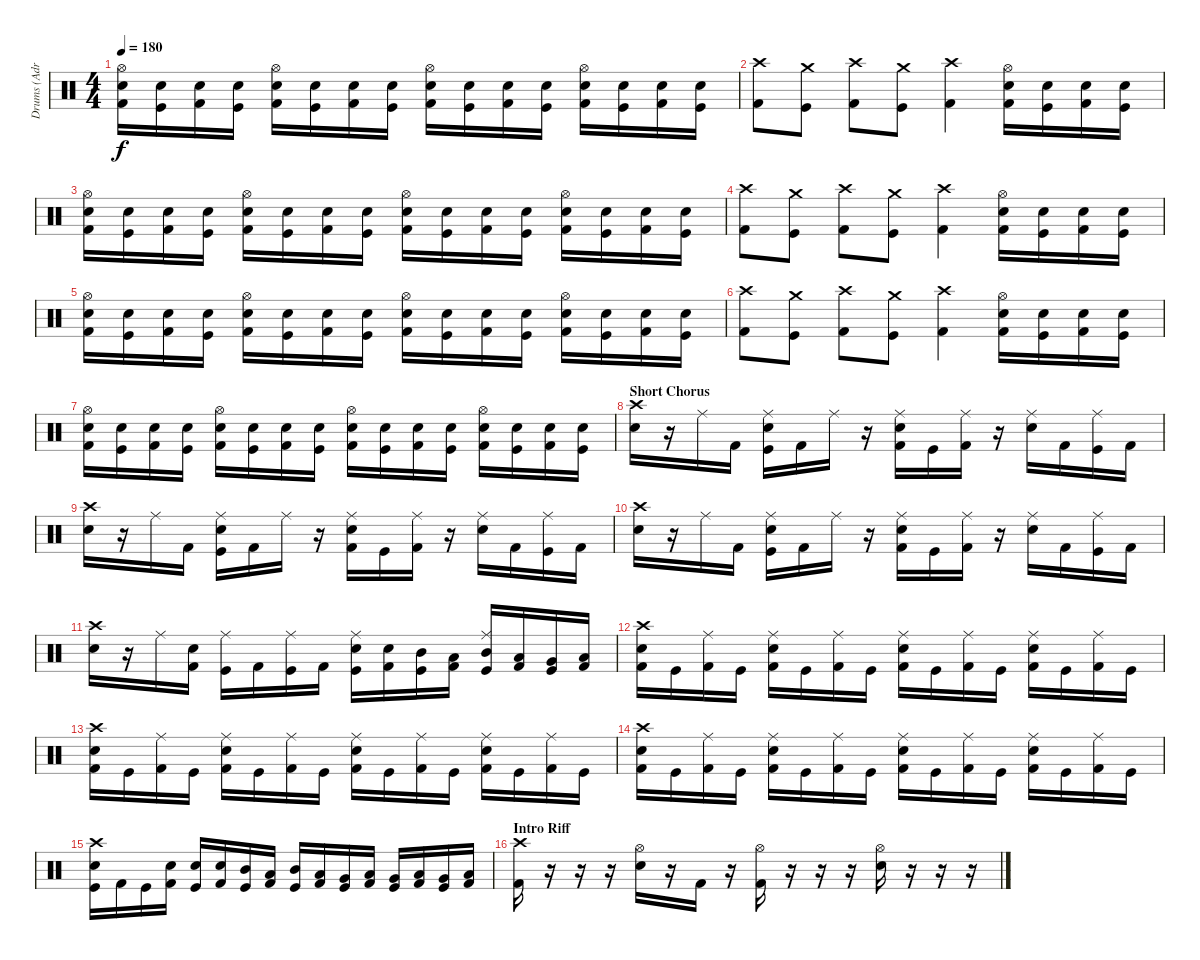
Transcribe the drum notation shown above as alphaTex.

\track ("Drums (Adrian)" "Drums (Adr") {instrument percussion}
\staff {score}
\articulation defaults
\ts (4 4)
\tempo 180
\clef neutral
\ks c
("Hi-Hat (open)" "Electric Snare (hit)" "Kick (hit) 2").16{dy f} ("Electric Snare (hit)" "Kick (hit)").16 ("Electric Snare (hit)" "Kick (hit) 2").16 ("Electric Snare (hit)" "Kick (hit)").16 ("Hi-Hat (open)" "Electric Snare (hit)" "Kick (hit) 2").16 ("Electric Snare (hit)" "Kick (hit)").16 ("Electric Snare (hit)" "Kick (hit) 2").16 ("Electric Snare (hit)" "Kick (hit)").16 ("Hi-Hat (open)" "Electric Snare (hit)" "Kick (hit) 2").16 ("Electric Snare (hit)" "Kick (hit)").16 ("Electric Snare (hit)" "Kick (hit) 2").16 ("Electric Snare (hit)" "Kick (hit)").16 ("Hi-Hat (open)" "Electric Snare (hit)" "Kick (hit) 2").16 ("Electric Snare (hit)" "Kick (hit)").16 ("Electric Snare (hit)" "Kick (hit) 2").16 ("Electric Snare (hit)" "Kick (hit)").16 |
("Crash high (hit)" "Kick (hit) 2").8 ("Crash medium (hit)" "Kick (hit)").8 ("Crash high (hit)" "Kick (hit) 2").8 ("Crash medium (hit)" "Kick (hit)").8 ("Crash high (hit)" "Kick (hit) 2").4 ("Hi-Hat (open)" "Electric Snare (hit)" "Kick (hit) 2").16 ("Electric Snare (hit)" "Kick (hit)").16 ("Electric Snare (hit)" "Kick (hit) 2").16 ("Electric Snare (hit)" "Kick (hit)").16 |
("Hi-Hat (open)" "Electric Snare (hit)" "Kick (hit) 2").16 ("Electric Snare (hit)" "Kick (hit)").16 ("Electric Snare (hit)" "Kick (hit) 2").16 ("Electric Snare (hit)" "Kick (hit)").16 ("Hi-Hat (open)" "Electric Snare (hit)" "Kick (hit) 2").16 ("Electric Snare (hit)" "Kick (hit)").16 ("Electric Snare (hit)" "Kick (hit) 2").16 ("Electric Snare (hit)" "Kick (hit)").16 ("Hi-Hat (open)" "Electric Snare (hit)" "Kick (hit) 2").16 ("Electric Snare (hit)" "Kick (hit)").16 ("Electric Snare (hit)" "Kick (hit) 2").16 ("Electric Snare (hit)" "Kick (hit)").16 ("Hi-Hat (open)" "Electric Snare (hit)" "Kick (hit) 2").16 ("Electric Snare (hit)" "Kick (hit)").16 ("Electric Snare (hit)" "Kick (hit) 2").16 ("Electric Snare (hit)" "Kick (hit)").16 |
("Crash high (hit)" "Kick (hit) 2").8 ("Crash medium (hit)" "Kick (hit)").8 ("Crash high (hit)" "Kick (hit) 2").8 ("Crash medium (hit)" "Kick (hit)").8 ("Crash high (hit)" "Kick (hit) 2").4 ("Hi-Hat (open)" "Electric Snare (hit)" "Kick (hit) 2").16 ("Electric Snare (hit)" "Kick (hit)").16 ("Electric Snare (hit)" "Kick (hit) 2").16 ("Electric Snare (hit)" "Kick (hit)").16 |
("Hi-Hat (open)" "Electric Snare (hit)" "Kick (hit) 2").16 ("Electric Snare (hit)" "Kick (hit)").16 ("Electric Snare (hit)" "Kick (hit) 2").16 ("Electric Snare (hit)" "Kick (hit)").16 ("Hi-Hat (open)" "Electric Snare (hit)" "Kick (hit) 2").16 ("Electric Snare (hit)" "Kick (hit)").16 ("Electric Snare (hit)" "Kick (hit) 2").16 ("Electric Snare (hit)" "Kick (hit)").16 ("Hi-Hat (open)" "Electric Snare (hit)" "Kick (hit) 2").16 ("Electric Snare (hit)" "Kick (hit)").16 ("Electric Snare (hit)" "Kick (hit) 2").16 ("Electric Snare (hit)" "Kick (hit)").16 ("Hi-Hat (open)" "Electric Snare (hit)" "Kick (hit) 2").16 ("Electric Snare (hit)" "Kick (hit)").16 ("Electric Snare (hit)" "Kick (hit) 2").16 ("Electric Snare (hit)" "Kick (hit)").16 |
("Crash high (hit)" "Kick (hit) 2").8 ("Crash medium (hit)" "Kick (hit)").8 ("Crash high (hit)" "Kick (hit) 2").8 ("Crash medium (hit)" "Kick (hit)").8 ("Crash high (hit)" "Kick (hit) 2").4 ("Hi-Hat (open)" "Electric Snare (hit)" "Kick (hit) 2").16 ("Electric Snare (hit)" "Kick (hit)").16 ("Electric Snare (hit)" "Kick (hit) 2").16 ("Electric Snare (hit)" "Kick (hit)").16 |
("Hi-Hat (open)" "Electric Snare (hit)" "Kick (hit) 2").16 ("Electric Snare (hit)" "Kick (hit)").16 ("Electric Snare (hit)" "Kick (hit) 2").16 ("Electric Snare (hit)" "Kick (hit)").16 ("Hi-Hat (open)" "Electric Snare (hit)" "Kick (hit) 2").16 ("Electric Snare (hit)" "Kick (hit)").16 ("Electric Snare (hit)" "Kick (hit) 2").16 ("Electric Snare (hit)" "Kick (hit)").16 ("Hi-Hat (open)" "Electric Snare (hit)" "Kick (hit) 2").16 ("Electric Snare (hit)" "Kick (hit)").16 ("Electric Snare (hit)" "Kick (hit) 2").16 ("Electric Snare (hit)" "Kick (hit)").16 ("Hi-Hat (open)" "Electric Snare (hit)" "Kick (hit) 2").16 ("Electric Snare (hit)" "Kick (hit)").16 ("Electric Snare (hit)" "Kick (hit) 2").16 ("Electric Snare (hit)" "Kick (hit)").16 |
\section ("" "Short Chorus")
("Crash high (hit)" "Electric Snare (hit)").16 r.16 "Ride (middle)".16 "Kick (hit) 2".16 ("Ride (middle)" "Electric Snare (hit)" "Kick (hit)").16 "Kick (hit) 2".16 "Ride (middle)".16 r.16 ("Ride (middle)" "Electric Snare (hit)" "Kick (hit) 2").16 "Kick (hit)".16 ("Ride (middle)" "Kick (hit) 2").16 r.16 ("Ride (middle)" "Electric Snare (hit)").16 "Kick (hit) 2".16 ("Ride (middle)" "Kick (hit)").16 "Kick (hit) 2".16 |
("Crash high (hit)" "Electric Snare (hit)").16 r.16 "Ride (middle)".16 "Kick (hit) 2".16 ("Ride (middle)" "Electric Snare (hit)" "Kick (hit)").16 "Kick (hit) 2".16 "Ride (middle)".16 r.16 ("Ride (middle)" "Electric Snare (hit)" "Kick (hit) 2").16 "Kick (hit)".16 ("Ride (middle)" "Kick (hit) 2").16 r.16 ("Ride (middle)" "Electric Snare (hit)").16 "Kick (hit) 2".16 ("Ride (middle)" "Kick (hit)").16 "Kick (hit) 2".16 |
("Crash high (hit)" "Electric Snare (hit)").16 r.16 "Ride (middle)".16 "Kick (hit) 2".16 ("Ride (middle)" "Electric Snare (hit)" "Kick (hit)").16 "Kick (hit) 2".16 "Ride (middle)".16 r.16 ("Ride (middle)" "Electric Snare (hit)" "Kick (hit) 2").16 "Kick (hit)".16 ("Ride (middle)" "Kick (hit) 2").16 r.16 ("Ride (middle)" "Electric Snare (hit)").16 "Kick (hit) 2".16 ("Ride (middle)" "Kick (hit)").16 "Kick (hit) 2".16 |
("Crash high (hit)" "Electric Snare (hit)").16 r.16 "Ride (middle)".16 ("Electric Snare (hit)" "Kick (hit) 2").16 ("Ride (middle)" "Kick (hit)").16 "Kick (hit) 2".16 ("Ride (middle)" "Kick (hit)").16 "Kick (hit) 2".16 ("Ride (middle)" "Electric Snare (hit)" "Kick (hit)").16 ("Electric Snare (hit)" "Kick (hit) 2").16 ("Mid Tom (hit)" "Kick (hit)").16 ("Low Tom (hit)" "Kick (hit) 2").16 ("Ride (middle)" "Mid Tom (hit)" "Kick (hit)").16 ("Low Tom (hit)" "Kick (hit) 2").16 ("Very Low Tom (hit)" "Kick (hit)").16 ("Low Tom (hit)" "Kick (hit) 2").16 |
("Crash high (hit)" "Electric Snare (hit)" "Kick (hit) 2").16 "Kick (hit)".16 ("Ride (middle)" "Kick (hit) 2").16 "Kick (hit)".16 ("Ride (middle)" "Electric Snare (hit)" "Kick (hit) 2").16 "Kick (hit)".16 ("Ride (middle)" "Kick (hit) 2").16 "Kick (hit)".16 ("Ride (middle)" "Electric Snare (hit)" "Kick (hit) 2").16 "Kick (hit)".16 ("Ride (middle)" "Kick (hit) 2").16 "Kick (hit)".16 ("Ride (middle)" "Electric Snare (hit)" "Kick (hit) 2").16 "Kick (hit)".16 ("Ride (middle)" "Kick (hit) 2").16 "Kick (hit)".16 |
("Crash high (hit)" "Electric Snare (hit)" "Kick (hit) 2").16 "Kick (hit)".16 ("Ride (middle)" "Kick (hit) 2").16 "Kick (hit)".16 ("Ride (middle)" "Electric Snare (hit)" "Kick (hit) 2").16 "Kick (hit)".16 ("Ride (middle)" "Kick (hit) 2").16 "Kick (hit)".16 ("Ride (middle)" "Electric Snare (hit)" "Kick (hit) 2").16 "Kick (hit)".16 ("Ride (middle)" "Kick (hit) 2").16 "Kick (hit)".16 ("Ride (middle)" "Electric Snare (hit)" "Kick (hit) 2").16 "Kick (hit)".16 ("Ride (middle)" "Kick (hit) 2").16 "Kick (hit)".16 |
("Crash high (hit)" "Electric Snare (hit)" "Kick (hit) 2").16 "Kick (hit)".16 ("Ride (middle)" "Kick (hit) 2").16 "Kick (hit)".16 ("Ride (middle)" "Electric Snare (hit)" "Kick (hit) 2").16 "Kick (hit)".16 ("Ride (middle)" "Kick (hit) 2").16 "Kick (hit)".16 ("Ride (middle)" "Electric Snare (hit)" "Kick (hit) 2").16 "Kick (hit)".16 ("Ride (middle)" "Kick (hit) 2").16 "Kick (hit)".16 ("Ride (middle)" "Electric Snare (hit)" "Kick (hit) 2").16 "Kick (hit)".16 ("Ride (middle)" "Kick (hit) 2").16 "Kick (hit)".16 |
("Crash high (hit)" "Electric Snare (hit)" "Kick (hit)").16 "Kick (hit) 2".16 "Kick (hit)".16 ("Electric Snare (hit)" "Kick (hit) 2").16 ("Electric Snare (hit)" "Kick (hit)").16 ("Electric Snare (hit)" "Kick (hit) 2").16 ("Mid Tom (hit)" "Kick (hit)").16 ("Low Tom (hit)" "Kick (hit) 2").16 ("Mid Tom (hit)" "Kick (hit)").16 ("Low Tom (hit)" "Kick (hit) 2").16 ("Very Low Tom (hit)" "Kick (hit)").16 ("Low Tom (hit)" "Kick (hit) 2").16 ("Very Low Tom (hit)" "Kick (hit)").16 ("Low Floor Tom (hit)" "Kick (hit) 2").16 ("Very Low Tom (hit)" "Kick (hit)").16 ("Low Floor Tom (hit)" "Kick (hit) 2").16 |
\section ("" "Intro Riff")
("Crash high (hit)" "Kick (hit) 2").16 r.16 r.16 r.16 ("Hi-Hat (open)" "Electric Snare (hit)").16 r.16 "Kick (hit) 2".16 r.16 ("Hi-Hat (open)" "Kick (hit) 2").16 r.16 r.16 r.16 ("Hi-Hat (open)" "Electric Snare (hit)").16 r.16 r.16 r.16
